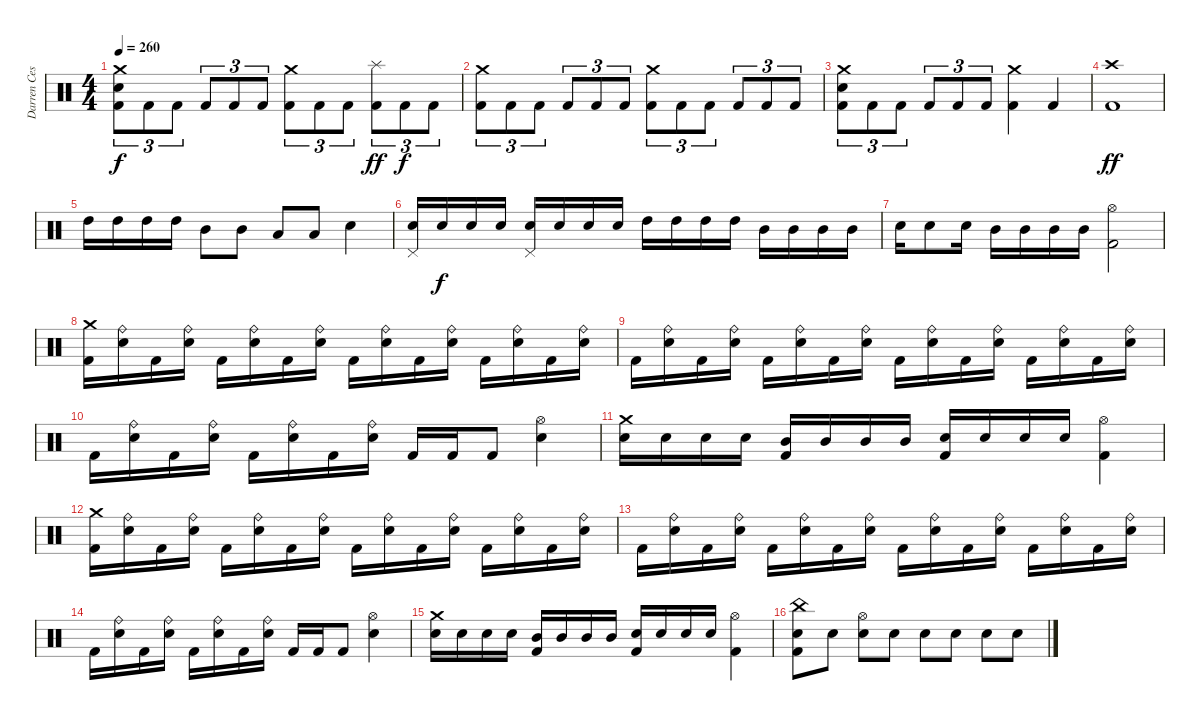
\track ("Darren Cesca" "Darren Ces") {instrument percussion}
\staff {score}
\articulation defaults
\ts (4 4)
\tempo 260
\clef neutral
\ks c
("Crash medium (hit)" "Electric Snare (hit)" "Kick (hit) 2").8{tu (3 2) dy f} "Kick (hit) 2".8{tu (3 2)} "Kick (hit) 2".8{tu (3 2)} "Kick (hit) 2".8{tu (3 2)} "Kick (hit) 2".8{tu (3 2)} "Kick (hit) 2".8{tu (3 2)} ("Crash medium (hit)" "Kick (hit) 2").8{tu (3 2)} "Kick (hit) 2".8{tu (3 2)} "Kick (hit) 2".8{tu (3 2)} ("Splash (hit)" "Kick (hit) 2").8{tu (3 2) dy ff} "Kick (hit) 2".8{tu (3 2) dy f} "Kick (hit) 2".8{tu (3 2)} |
("Crash medium (hit)" "Kick (hit) 2").8{tu (3 2)} "Kick (hit) 2".8{tu (3 2)} "Kick (hit) 2".8{tu (3 2)} "Kick (hit) 2".8{tu (3 2)} "Kick (hit) 2".8{tu (3 2)} "Kick (hit) 2".8{tu (3 2)} ("Crash medium (hit)" "Kick (hit) 2").8{tu (3 2)} "Kick (hit) 2".8{tu (3 2)} "Kick (hit) 2".8{tu (3 2)} "Kick (hit) 2".8{tu (3 2)} "Kick (hit) 2".8{tu (3 2)} "Kick (hit) 2".8{tu (3 2)} |
("Crash medium (hit)" "Electric Snare (hit)" "Kick (hit) 2").8{tu (3 2)} "Kick (hit) 2".8{tu (3 2)} "Kick (hit) 2".8{tu (3 2)} "Kick (hit) 2".8{tu (3 2)} "Kick (hit) 2".8{tu (3 2)} "Kick (hit) 2".8{tu (3 2)} ("Crash medium (hit)" "Kick (hit) 2").4 "Kick (hit) 2".4 |
("Crash high (hit)" "Kick (hit) 2").1{dy ff} |
"High Tom (hit)".16 "High Tom (hit)".16 "High Tom (hit)".16 "High Tom (hit)".16 "Mid Tom (hit)".8 "Mid Tom (hit)".8 "Low Tom (hit)".8 "Low Tom (hit)".8 "Electric Snare (hit)".4 |
("Pedal Hi-Hat (hit)" "Electric Snare (hit)").16 "Electric Snare (hit)".16{dy f} "Electric Snare (hit)".16 "Electric Snare (hit)".16 ("Pedal Hi-Hat (hit)" "Electric Snare (hit)").16 "Electric Snare (hit)".16 "Electric Snare (hit)".16 "Electric Snare (hit)".16 "High Tom (hit)".16 "High Tom (hit)".16 "High Tom (hit)".16 "High Tom (hit)".16 "Mid Tom (hit)".16 "Mid Tom (hit)".16 "Mid Tom (hit)".16 "Mid Tom (hit)".16 |
"Electric Snare (hit)".16 "Electric Snare (hit)".8 "Electric Snare (hit)".16 "Mid Tom (hit)".16 "Mid Tom (hit)".16 "Mid Tom (hit)".16 "Mid Tom (hit)".16 ("Hi-Hat (open)" "Kick (hit) 2").2 |
("Crash medium (hit)" "Kick (hit) 2").16 ("Ride (bell)" "Electric Snare (hit)").16 "Kick (hit) 2".16 ("Ride (bell)" "Electric Snare (hit)").16 "Kick (hit) 2".16 ("Ride (bell)" "Electric Snare (hit)").16 "Kick (hit) 2".16 ("Ride (bell)" "Electric Snare (hit)").16 "Kick (hit) 2".16 ("Ride (bell)" "Electric Snare (hit)").16 "Kick (hit) 2".16 ("Ride (bell)" "Electric Snare (hit)").16 "Kick (hit) 2".16 ("Ride (bell)" "Electric Snare (hit)").16 "Kick (hit) 2".16 ("Ride (bell)" "Electric Snare (hit)").16 |
"Kick (hit) 2".16 ("Ride (bell)" "Electric Snare (hit)").16 "Kick (hit) 2".16 ("Ride (bell)" "Electric Snare (hit)").16 "Kick (hit) 2".16 ("Ride (bell)" "Electric Snare (hit)").16 "Kick (hit) 2".16 ("Ride (bell)" "Electric Snare (hit)").16 "Kick (hit) 2".16 ("Ride (bell)" "Electric Snare (hit)").16 "Kick (hit) 2".16 ("Ride (bell)" "Electric Snare (hit)").16 "Kick (hit) 2".16 ("Ride (bell)" "Electric Snare (hit)").16 "Kick (hit) 2".16 ("Ride (bell)" "Electric Snare (hit)").16 |
"Kick (hit) 2".16 ("Ride (bell)" "Electric Snare (hit)").16 "Kick (hit) 2".16 ("Ride (bell)" "Electric Snare (hit)").16 "Kick (hit) 2".16 ("Ride (bell)" "Electric Snare (hit)").16 "Kick (hit) 2".16 ("Ride (bell)" "Electric Snare (hit)").16 "Kick (hit) 2".16 "Kick (hit) 2".16 "Kick (hit) 2".8 ("Hi-Hat (open)" "Electric Snare (hit)").4 |
("Crash medium (hit)" "Electric Snare (hit)").16 "Electric Snare (hit)".16 "Electric Snare (hit)".16 "Electric Snare (hit)".16 ("Mid Tom (hit)" "Kick (hit) 2").16 "Mid Tom (hit)".16 "Mid Tom (hit)".16 "Mid Tom (hit)".16 ("Electric Snare (hit)" "Kick (hit) 2").16 "Electric Snare (hit)".16 "Electric Snare (hit)".16 "Electric Snare (hit)".16 ("Hi-Hat (open)" "Kick (hit) 2").4 |
("Crash medium (hit)" "Kick (hit) 2").16 ("Ride (bell)" "Electric Snare (hit)").16 "Kick (hit) 2".16 ("Ride (bell)" "Electric Snare (hit)").16 "Kick (hit) 2".16 ("Ride (bell)" "Electric Snare (hit)").16 "Kick (hit) 2".16 ("Ride (bell)" "Electric Snare (hit)").16 "Kick (hit) 2".16 ("Ride (bell)" "Electric Snare (hit)").16 "Kick (hit) 2".16 ("Ride (bell)" "Electric Snare (hit)").16 "Kick (hit) 2".16 ("Ride (bell)" "Electric Snare (hit)").16 "Kick (hit) 2".16 ("Ride (bell)" "Electric Snare (hit)").16 |
"Kick (hit) 2".16 ("Ride (bell)" "Electric Snare (hit)").16 "Kick (hit) 2".16 ("Ride (bell)" "Electric Snare (hit)").16 "Kick (hit) 2".16 ("Ride (bell)" "Electric Snare (hit)").16 "Kick (hit) 2".16 ("Ride (bell)" "Electric Snare (hit)").16 "Kick (hit) 2".16 ("Ride (bell)" "Electric Snare (hit)").16 "Kick (hit) 2".16 ("Ride (bell)" "Electric Snare (hit)").16 "Kick (hit) 2".16 ("Ride (bell)" "Electric Snare (hit)").16 "Kick (hit) 2".16 ("Ride (bell)" "Electric Snare (hit)").16 |
"Kick (hit) 2".16 ("Ride (bell)" "Electric Snare (hit)").16 "Kick (hit) 2".16 ("Ride (bell)" "Electric Snare (hit)").16 "Kick (hit) 2".16 ("Ride (bell)" "Electric Snare (hit)").16 "Kick (hit) 2".16 ("Ride (bell)" "Electric Snare (hit)").16 "Kick (hit) 2".16 "Kick (hit) 2".16 "Kick (hit) 2".8 ("Hi-Hat (open)" "Electric Snare (hit)").4 |
("Crash medium (hit)" "Electric Snare (hit)").16 "Electric Snare (hit)".16 "Electric Snare (hit)".16 "Electric Snare (hit)".16 ("Mid Tom (hit)" "Kick (hit) 2").16 "Mid Tom (hit)".16 "Mid Tom (hit)".16 "Mid Tom (hit)".16 ("Electric Snare (hit)" "Kick (hit) 2").16 "Electric Snare (hit)".16 "Electric Snare (hit)".16 "Electric Snare (hit)".16 ("Hi-Hat (open)" "Kick (hit) 2").4 |
("China (hit)" "Electric Snare (hit)" "Kick (hit) 2").8 "Electric Snare (hit)".8 ("Hi-Hat (open)" "Electric Snare (hit)").8 "Electric Snare (hit)".8 "Electric Snare (hit)".8 "Electric Snare (hit)".8 "Electric Snare (hit)".8 "Electric Snare (hit)".8
